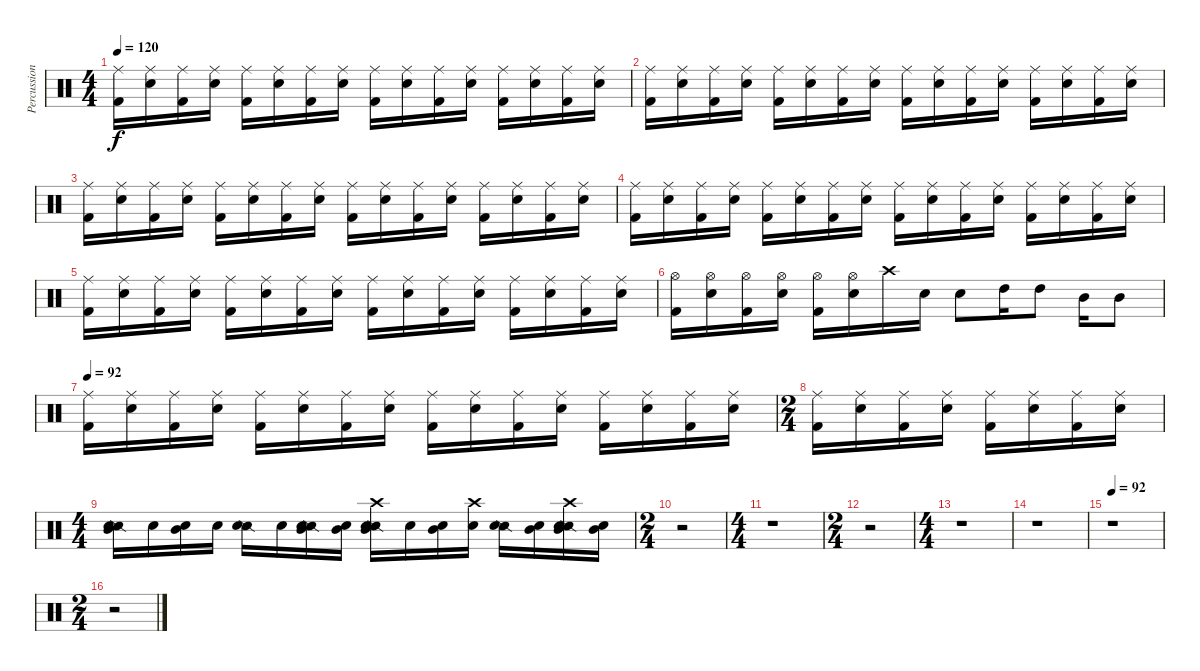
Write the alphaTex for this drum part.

\track ("Percussion" "Percussion") {instrument percussion}
\staff {score}
\articulation defaults
\ts (4 4)
\tempo 120
\clef neutral
\ks c
("Ride (middle)" "Kick (hit) 2").16{dy f} ("Ride (middle)" "Electric Snare (hit)").16 ("Ride (middle)" "Kick (hit) 2").16 ("Ride (middle)" "Electric Snare (hit)").16 ("Ride (middle)" "Kick (hit) 2").16 ("Ride (middle)" "Electric Snare (hit)").16 ("Ride (middle)" "Kick (hit) 2").16 ("Ride (middle)" "Electric Snare (hit)").16 ("Ride (middle)" "Kick (hit) 2").16 ("Ride (middle)" "Electric Snare (hit)").16 ("Ride (middle)" "Kick (hit) 2").16 ("Ride (middle)" "Electric Snare (hit)").16 ("Ride (middle)" "Kick (hit) 2").16 ("Ride (middle)" "Electric Snare (hit)").16 ("Ride (middle)" "Kick (hit) 2").16 ("Ride (middle)" "Electric Snare (hit)").16 |
("Ride (middle)" "Kick (hit) 2").16 ("Ride (middle)" "Electric Snare (hit)").16 ("Ride (middle)" "Kick (hit) 2").16 ("Ride (middle)" "Electric Snare (hit)").16 ("Ride (middle)" "Kick (hit) 2").16 ("Ride (middle)" "Electric Snare (hit)").16 ("Ride (middle)" "Kick (hit) 2").16 ("Ride (middle)" "Electric Snare (hit)").16 ("Ride (middle)" "Kick (hit) 2").16 ("Ride (middle)" "Electric Snare (hit)").16 ("Ride (middle)" "Kick (hit) 2").16 ("Ride (middle)" "Electric Snare (hit)").16 ("Ride (middle)" "Kick (hit) 2").16 ("Ride (middle)" "Electric Snare (hit)").16 ("Ride (middle)" "Kick (hit) 2").16 ("Ride (middle)" "Electric Snare (hit)").16 |
("Ride (middle)" "Kick (hit) 2").16 ("Ride (middle)" "Electric Snare (hit)").16 ("Ride (middle)" "Kick (hit) 2").16 ("Ride (middle)" "Electric Snare (hit)").16 ("Ride (middle)" "Kick (hit) 2").16 ("Ride (middle)" "Electric Snare (hit)").16 ("Ride (middle)" "Kick (hit) 2").16 ("Ride (middle)" "Electric Snare (hit)").16 ("Ride (middle)" "Kick (hit) 2").16 ("Ride (middle)" "Electric Snare (hit)").16 ("Ride (middle)" "Kick (hit) 2").16 ("Ride (middle)" "Electric Snare (hit)").16 ("Ride (middle)" "Kick (hit) 2").16 ("Ride (middle)" "Electric Snare (hit)").16 ("Ride (middle)" "Kick (hit) 2").16 ("Ride (middle)" "Electric Snare (hit)").16 |
("Ride (middle)" "Kick (hit) 2").16 ("Ride (middle)" "Electric Snare (hit)").16 ("Ride (middle)" "Kick (hit) 2").16 ("Ride (middle)" "Electric Snare (hit)").16 ("Ride (middle)" "Kick (hit) 2").16 ("Ride (middle)" "Electric Snare (hit)").16 ("Ride (middle)" "Kick (hit) 2").16 ("Ride (middle)" "Electric Snare (hit)").16 ("Ride (middle)" "Kick (hit) 2").16 ("Ride (middle)" "Electric Snare (hit)").16 ("Ride (middle)" "Kick (hit) 2").16 ("Ride (middle)" "Electric Snare (hit)").16 ("Ride (middle)" "Kick (hit) 2").16 ("Ride (middle)" "Electric Snare (hit)").16 ("Ride (middle)" "Kick (hit) 2").16 ("Ride (middle)" "Electric Snare (hit)").16 |
("Ride (middle)" "Kick (hit) 2").16 ("Ride (middle)" "Electric Snare (hit)").16 ("Ride (middle)" "Kick (hit) 2").16 ("Ride (middle)" "Electric Snare (hit)").16 ("Ride (middle)" "Kick (hit) 2").16 ("Ride (middle)" "Electric Snare (hit)").16 ("Ride (middle)" "Kick (hit) 2").16 ("Ride (middle)" "Electric Snare (hit)").16 ("Ride (middle)" "Kick (hit) 2").16 ("Ride (middle)" "Electric Snare (hit)").16 ("Ride (middle)" "Kick (hit) 2").16 ("Ride (middle)" "Electric Snare (hit)").16 ("Ride (middle)" "Kick (hit) 2").16 ("Ride (middle)" "Electric Snare (hit)").16 ("Ride (middle)" "Kick (hit) 2").16 ("Ride (middle)" "Electric Snare (hit)").16 |
("Hi-Hat (open)" "Kick (hit) 2").16 ("Hi-Hat (open)" "Electric Snare (hit)").16 ("Hi-Hat (open)" "Kick (hit) 2").16 ("Hi-Hat (open)" "Electric Snare (hit)").16 ("Hi-Hat (open)" "Kick (hit) 2").16 ("Hi-Hat (open)" "Electric Snare (hit)").16 "Crash high (hit)".16 "Electric Snare (hit)".16 "Electric Snare (hit)".8 "High Tom (hit)".16 "High Tom (hit)".8 "Mid Tom (hit)".16 "Mid Tom (hit)".8 |
\tempo 92
("Ride (middle)" "Kick (hit) 2").16{volume 0} ("Ride (middle)" "Electric Snare (hit)").16 ("Ride (middle)" "Kick (hit) 2").16 ("Ride (middle)" "Electric Snare (hit)").16 ("Ride (middle)" "Kick (hit) 2").16 ("Ride (middle)" "Electric Snare (hit)").16 ("Ride (middle)" "Kick (hit) 2").16 ("Ride (middle)" "Electric Snare (hit)").16 ("Ride (middle)" "Kick (hit) 2").16 ("Ride (middle)" "Electric Snare (hit)").16 ("Ride (middle)" "Kick (hit) 2").16 ("Ride (middle)" "Electric Snare (hit)").16 ("Ride (middle)" "Kick (hit) 2").16 ("Ride (middle)" "Electric Snare (hit)").16 ("Ride (middle)" "Kick (hit) 2").16 ("Ride (middle)" "Electric Snare (hit)").16 |
\ts (2 4)
("Ride (middle)" "Kick (hit) 2").16 ("Ride (middle)" "Electric Snare (hit)").16 ("Ride (middle)" "Kick (hit) 2").16 ("Ride (middle)" "Electric Snare (hit)").16 ("Ride (middle)" "Kick (hit) 2").16 ("Ride (middle)" "Electric Snare (hit)").16 ("Ride (middle)" "Kick (hit) 2").16 ("Ride (middle)" "Electric Snare (hit)").16 |
\ts (4 4)
("Mid Tom (hit)" "Snare (side stick) 2" "Snare (hit) 2").16 "Snare (hit) 2".16 ("Mid Tom (hit)" "Snare (hit) 2").16 "Snare (hit) 2".16 ("Snare (side stick) 2" "Snare (hit) 2").16 "Snare (hit) 2".16 ("Mid Tom (hit)" "Snare (side stick) 2" "Snare (hit) 2").16 ("Mid Tom (hit)" "Snare (hit) 2").16 ("Mid Tom (hit)" "Crash high (hit)" "Snare (side stick) 2" "Snare (hit) 2").16 "Snare (hit) 2".16 ("Mid Tom (hit)" "Snare (hit) 2").16 ("Crash high (hit)" "Snare (hit) 2").16 ("Snare (side stick) 2" "Snare (hit) 2").16 ("Mid Tom (hit)" "Snare (hit) 2").16 ("Mid Tom (hit)" "Crash high (hit)" "Snare (side stick) 2" "Snare (hit) 2").16 ("Mid Tom (hit)" "Snare (hit) 2").16 |
\ts (2 4)
r.2 |
\ts (4 4)
r.1 |
\ts (2 4)
r.2 |
\ts (4 4)
r.1 |
r.1 |
\tempo 92
r.1 |
\ts (2 4)
r.2
